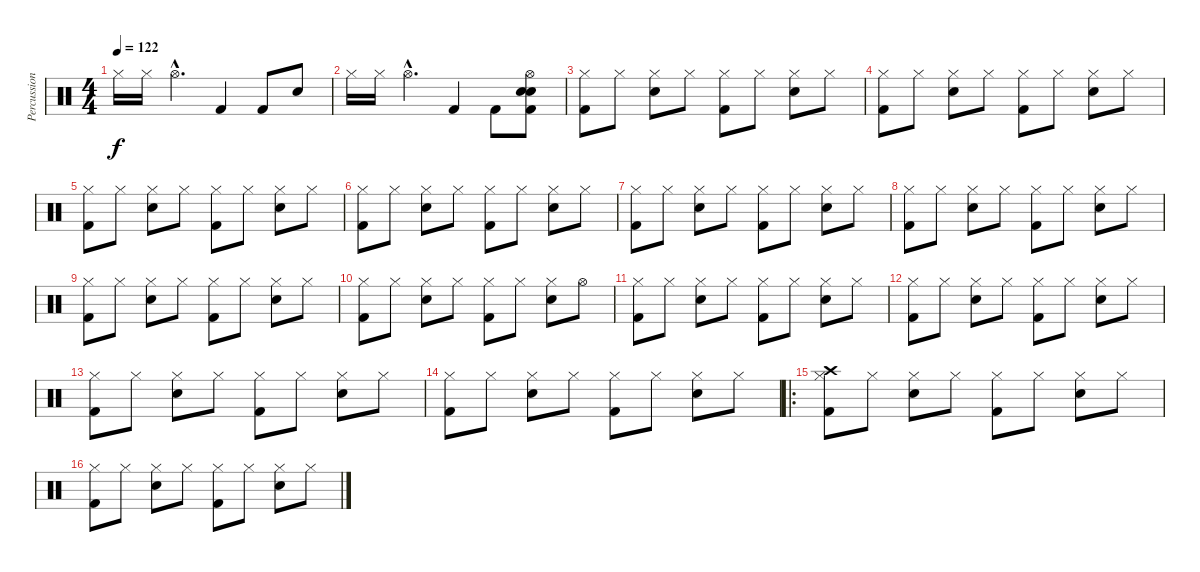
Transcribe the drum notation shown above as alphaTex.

\track ("Percussion" "Percussion") {instrument percussion}
\staff {score}
\articulation defaults
\ts (4 4)
\tempo 122
\clef neutral
\ks c "Hi-Hat (closed)".16{dy f} "Hi-Hat (closed)".16 "Hi-Hat (open)"{hac}.4{d} "Kick (hit) 2".4 "Kick (hit) 2".8 "Snare (hit) 2".8
|
"Hi-Hat (closed)".16 "Hi-Hat (closed)".16 "Hi-Hat (open)"{hac}.4{d} "Kick (hit) 2".4 "Kick (hit) 2".8 ("Hi-Hat (open)" "Snare (hit) 2" "Snare (hit) 2" "Kick (hit) 2").8 |
("Hi-Hat (closed)" "Kick (hit) 2").8 "Hi-Hat (closed)".8 ("Hi-Hat (closed)" "Snare (hit) 2").8 "Hi-Hat (closed)".8 ("Hi-Hat (closed)" "Kick (hit) 2").8 "Hi-Hat (closed)".8 ("Hi-Hat (closed)" "Snare (hit) 2").8 "Hi-Hat (closed)".8 |
("Hi-Hat (closed)" "Kick (hit) 2").8 "Hi-Hat (closed)".8 ("Hi-Hat (closed)" "Snare (hit) 2").8 "Hi-Hat (closed)".8 ("Hi-Hat (closed)" "Kick (hit) 2").8 "Hi-Hat (closed)".8 ("Hi-Hat (closed)" "Snare (hit) 2").8 "Hi-Hat (closed)".8 |
("Hi-Hat (closed)" "Kick (hit) 2").8 "Hi-Hat (closed)".8 ("Hi-Hat (closed)" "Snare (hit) 2").8 "Hi-Hat (closed)".8 ("Hi-Hat (closed)" "Kick (hit) 2").8 "Hi-Hat (closed)".8 ("Hi-Hat (closed)" "Snare (hit) 2").8 "Hi-Hat (closed)".8 |
("Hi-Hat (closed)" "Kick (hit) 2").8 "Hi-Hat (closed)".8 ("Hi-Hat (closed)" "Snare (hit) 2").8 "Hi-Hat (closed)".8 ("Hi-Hat (closed)" "Kick (hit) 2").8 "Hi-Hat (closed)".8 ("Hi-Hat (closed)" "Snare (hit) 2").8 "Hi-Hat (closed)".8 |
("Hi-Hat (closed)" "Kick (hit) 2").8 "Hi-Hat (closed)".8 ("Hi-Hat (closed)" "Snare (hit) 2").8 "Hi-Hat (closed)".8 ("Hi-Hat (closed)" "Kick (hit) 2").8 "Hi-Hat (closed)".8 ("Hi-Hat (closed)" "Snare (hit) 2").8 "Hi-Hat (closed)".8 |
("Hi-Hat (closed)" "Kick (hit) 2").8 "Hi-Hat (closed)".8 ("Hi-Hat (closed)" "Snare (hit) 2").8 "Hi-Hat (closed)".8 ("Hi-Hat (closed)" "Kick (hit) 2").8 "Hi-Hat (closed)".8 ("Hi-Hat (closed)" "Snare (hit) 2").8 "Hi-Hat (closed)".8 |
("Hi-Hat (closed)" "Kick (hit) 2").8 "Hi-Hat (closed)".8 ("Hi-Hat (closed)" "Snare (hit) 2").8 "Hi-Hat (closed)".8 ("Hi-Hat (closed)" "Kick (hit) 2").8 "Hi-Hat (closed)".8 ("Hi-Hat (closed)" "Snare (hit) 2").8 "Hi-Hat (closed)".8 |
("Hi-Hat (closed)" "Kick (hit) 2").8 "Hi-Hat (closed)".8 ("Hi-Hat (closed)" "Snare (hit) 2").8 "Hi-Hat (closed)".8 ("Hi-Hat (closed)" "Kick (hit) 2").8 "Hi-Hat (closed)".8 ("Hi-Hat (closed)" "Snare (hit) 2").8 "Hi-Hat (open)".8 |
("Hi-Hat (closed)" "Kick (hit) 2").8 "Hi-Hat (closed)".8 ("Hi-Hat (closed)" "Snare (hit) 2").8 "Hi-Hat (closed)".8 ("Hi-Hat (closed)" "Kick (hit) 2").8 "Hi-Hat (closed)".8 ("Hi-Hat (closed)" "Snare (hit) 2").8 "Hi-Hat (closed)".8 |
("Hi-Hat (closed)" "Kick (hit) 2").8 "Hi-Hat (closed)".8 ("Hi-Hat (closed)" "Snare (hit) 2").8 "Hi-Hat (closed)".8 ("Hi-Hat (closed)" "Kick (hit) 2").8 "Hi-Hat (closed)".8 ("Hi-Hat (closed)" "Snare (hit) 2").8 "Hi-Hat (closed)".8 |
("Hi-Hat (closed)" "Kick (hit) 2").8 "Hi-Hat (closed)".8 ("Hi-Hat (closed)" "Snare (hit) 2").8 "Hi-Hat (closed)".8 ("Hi-Hat (closed)" "Kick (hit) 2").8 "Hi-Hat (closed)".8 ("Hi-Hat (closed)" "Snare (hit) 2").8 "Hi-Hat (closed)".8 |
("Hi-Hat (closed)" "Kick (hit) 2").8 "Hi-Hat (closed)".8 ("Hi-Hat (closed)" "Snare (hit) 2").8 "Hi-Hat (closed)".8 ("Hi-Hat (closed)" "Kick (hit) 2").8 "Hi-Hat (closed)".8 ("Hi-Hat (closed)" "Snare (hit) 2").8 "Hi-Hat (closed)".8 |
\ro
("Crash high (hit)" "Hi-Hat (closed)" "Kick (hit) 2").8 "Hi-Hat (closed)".8 ("Hi-Hat (closed)" "Snare (hit) 2").8 "Hi-Hat (closed)".8 ("Hi-Hat (closed)" "Kick (hit) 2").8 "Hi-Hat (closed)".8 ("Hi-Hat (closed)" "Snare (hit) 2").8 "Hi-Hat (closed)".8 |
("Hi-Hat (closed)" "Kick (hit) 2").8 "Hi-Hat (closed)".8 ("Hi-Hat (closed)" "Snare (hit) 2").8 "Hi-Hat (closed)".8 ("Hi-Hat (closed)" "Kick (hit) 2").8 "Hi-Hat (closed)".8 ("Hi-Hat (closed)" "Snare (hit) 2").8 "Hi-Hat (closed)".8
